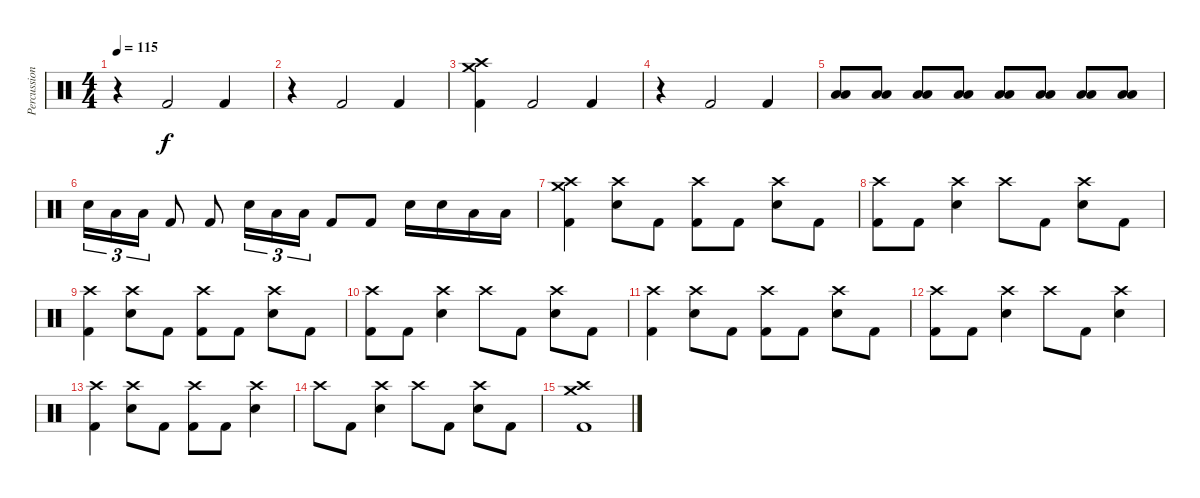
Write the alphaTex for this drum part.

\track ("Percussion" "Percussion") {instrument percussion}
\staff {score}
\articulation defaults
\ts (4 4)
\tempo 115
\clef neutral
\ks c
r.4{dy f} "Kick (hit) 2".2 "Kick (hit) 2".4 |
r.4 "Kick (hit) 2".2 "Kick (hit) 2".4 |
("Crash medium (hit)" "Crash high (hit)" "Kick (hit) 2").4 "Kick (hit) 2".2 "Kick (hit) 2".4 |
r.4 "Kick (hit) 2".2 "Kick (hit) 2".4 |
("Low Tom (hit)" "Low Floor Tom (hit)").8 ("Low Tom (hit)" "Low Floor Tom (hit)").8 ("Low Tom (hit)" "Low Floor Tom (hit)").8 ("Low Tom (hit)" "Low Floor Tom (hit)").8 ("Low Tom (hit)" "Low Floor Tom (hit)").8 ("Low Tom (hit)" "Low Floor Tom (hit)").8 ("Low Tom (hit)" "Low Floor Tom (hit)").8 ("Low Tom (hit)" "Low Floor Tom (hit)").8 |
"Electric Snare (hit)".16{tu (3 2)} "Low Tom (hit)".16{tu (3 2)} "Low Floor Tom (hit)".16{tu (3 2)} "Kick (hit) 2".8 "Kick (hit) 2".8 "Electric Snare (hit)".16{tu (3 2)} "Low Tom (hit)".16{tu (3 2)} "Low Floor Tom (hit)".16{tu (3 2)} "Kick (hit) 2".8 "Kick (hit) 2".8 "Electric Snare (hit)".16 "Electric Snare (hit)".16 "Low Tom (hit)".16 "Low Floor Tom (hit)".16 |
("Crash high (hit)" "Crash medium (hit)" "Kick (hit) 2").4 ("Crash high (hit)" "Electric Snare (hit)").8 "Kick (hit) 2".8 ("Crash high (hit)" "Kick (hit) 2").8 "Kick (hit) 2".8 ("Crash high (hit)" "Electric Snare (hit)").8 "Kick (hit) 2".8 |
("Crash high (hit)" "Kick (hit) 2").8 "Kick (hit) 2".8 ("Crash high (hit)" "Electric Snare (hit)").4 "Crash high (hit)".8 "Kick (hit) 2".8 ("Crash high (hit)" "Electric Snare (hit)").8 "Kick (hit) 2".8 |
("Crash high (hit)" "Kick (hit) 2").4 ("Crash high (hit)" "Electric Snare (hit)").8 "Kick (hit) 2".8 ("Crash high (hit)" "Kick (hit) 2").8 "Kick (hit) 2".8 ("Crash high (hit)" "Electric Snare (hit)").8 "Kick (hit) 2".8 |
("Crash high (hit)" "Kick (hit) 2").8 "Kick (hit) 2".8 ("Crash high (hit)" "Electric Snare (hit)").4 "Crash high (hit)".8 "Kick (hit) 2".8 ("Crash high (hit)" "Electric Snare (hit)").8 "Kick (hit) 2".8 |
("Crash high (hit)" "Kick (hit) 2").4 ("Crash high (hit)" "Electric Snare (hit)").8 "Kick (hit) 2".8 ("Crash high (hit)" "Kick (hit) 2").8 "Kick (hit) 2".8 ("Crash high (hit)" "Electric Snare (hit)").8 "Kick (hit) 2".8 |
("Crash high (hit)" "Kick (hit) 2").8 "Kick (hit) 2".8 ("Crash high (hit)" "Electric Snare (hit)").4 "Crash high (hit)".8 "Kick (hit) 2".8 ("Crash high (hit)" "Electric Snare (hit)").4 |
("Crash high (hit)" "Kick (hit) 2").4 ("Crash high (hit)" "Electric Snare (hit)").8 "Kick (hit) 2".8 ("Crash high (hit)" "Kick (hit) 2").8 "Kick (hit) 2".8 ("Crash high (hit)" "Electric Snare (hit)").4 |
"Crash high (hit)".8 "Kick (hit) 2".8 ("Crash high (hit)" "Electric Snare (hit)").4 "Crash high (hit)".8 "Kick (hit) 2".8 ("Crash high (hit)" "Electric Snare (hit)").8 "Kick (hit) 2".8 |
("Crash high (hit)" "Crash medium (hit)" "Kick (hit) 2").1
